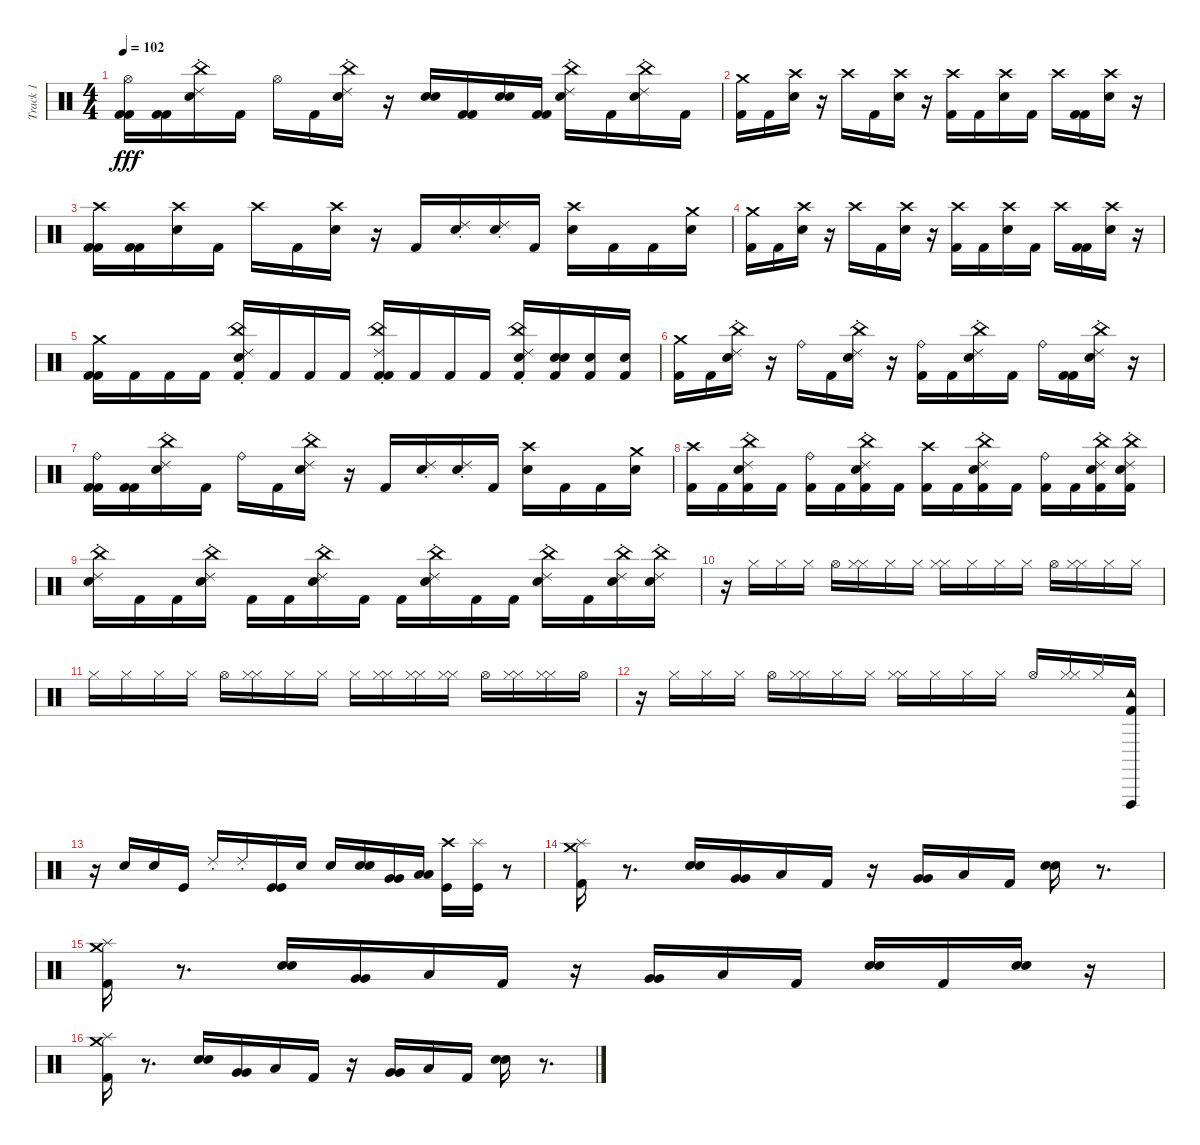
\track ("Track 1" "Track 1") {instrument percussion}
\staff {score}
\articulation defaults
\ts (4 4)
\tempo 102
\clef neutral
\ks c
("Hi-Hat (open)" "Kick (hit) 2" "Kick (hit) 2").16{dy fff} ("Kick (hit) 2" "Kick (hit) 2").16 ("China (hit)" "Ride (choke) 2" "Snare (hit) 2").16 "Kick (hit) 2".16 "Hi-Hat (open)".16 "Kick (hit) 2".16 ("China (hit)" "Ride (choke) 2" "Snare (hit) 2").16 r.16 ("Snare (hit) 2" "Snare (hit) 2").16 ("Kick (hit) 2" "Kick (hit) 2").16 ("Snare (hit) 2" "Snare (hit) 2").16 ("Kick (hit) 2" "Kick (hit) 2").16 ("China (hit)" "Ride (choke) 2" "Snare (hit) 2").16 "Kick (hit) 2".16 ("China (hit)" "Ride (choke) 2" "Snare (hit) 2").16 "Kick (hit) 2".16 |
("Kick (hit) 2" "Crash medium (hit)").16 "Kick (hit) 2".16 ("Snare (hit) 2" "Crash high (hit)").16 r.16 "Crash high (hit)".16 "Kick (hit) 2".16 ("Snare (hit) 2" "Crash high (hit)").16 r.16 ("Kick (hit) 2" "Crash high (hit)").16 "Kick (hit) 2".16 ("Snare (hit) 2" "Crash high (hit)").16 "Kick (hit) 2".16 "Crash high (hit)".16 ("Kick (hit) 2" "Kick (hit) 2").16 ("Crash high (hit)" "Snare (hit) 2").16 r.16 |
("Crash high (hit)" "Kick (hit) 2" "Kick (hit) 2").16 ("Kick (hit) 2" "Kick (hit) 2").16 ("Crash high (hit)" "Snare (hit) 2").16 "Kick (hit) 2".16 "Crash high (hit)".16 "Kick (hit) 2".16 ("Crash high (hit)" "Snare (hit) 2").16 r.16 "Kick (hit) 2".16 ("Snare (hit) 2" "Ride (choke) 2").16 ("Snare (hit) 2" "Ride (choke) 2").16 "Kick (hit) 2".16 ("Snare (hit) 2" "Crash high (hit)").16 "Kick (hit) 2".16 "Kick (hit) 2".16 ("Crash medium (hit)" "Snare (hit) 2").16 |
("Kick (hit) 2" "Crash medium (hit)").16 "Kick (hit) 2".16 ("Snare (hit) 2" "Crash high (hit)").16 r.16 "Crash high (hit)".16 "Kick (hit) 2".16 ("Snare (hit) 2" "Crash high (hit)").16 r.16 ("Kick (hit) 2" "Crash high (hit)").16 "Kick (hit) 2".16 ("Snare (hit) 2" "Crash high (hit)").16 "Kick (hit) 2".16 "Crash high (hit)".16 ("Kick (hit) 2" "Kick (hit) 2").16 ("Crash high (hit)" "Snare (hit) 2").16 r.16 |
("Kick (hit) 2" "Crash medium (hit)" "Kick (hit) 2").16 "Kick (hit) 2".16 "Kick (hit) 2".16 "Kick (hit) 2".16 ("China (hit)" "Ride (choke) 2" "Kick (hit) 2" "Snare (hit) 2").16 "Kick (hit) 2".16 "Kick (hit) 2".16 "Kick (hit) 2".16 ("Ride (choke) 2" "China (hit)" "Kick (hit) 2" "Kick (hit) 2").16 "Kick (hit) 2".16 "Kick (hit) 2".16 "Kick (hit) 2".16 ("Ride (choke) 2" "China (hit)" "Kick (hit) 2" "Snare (hit) 2").16 ("Kick (hit) 2" "Snare (hit) 2" "Snare (hit) 2").16 ("Kick (hit) 2" "Snare (hit) 2").16 ("Kick (hit) 2" "Snare (hit) 2").16 |
("Kick (hit) 2" "Crash medium (hit)").16 "Kick (hit) 2".16 ("Snare (hit) 2" "China (hit)" "Ride (choke) 2").16 r.16 "Ride (bell)".16 "Kick (hit) 2".16 ("Snare (hit) 2" "China (hit)" "Ride (choke) 2").16 r.16 ("Kick (hit) 2" "Ride (bell)").16 "Kick (hit) 2".16 ("Snare (hit) 2" "China (hit)" "Ride (choke) 2").16 "Kick (hit) 2".16 "Ride (bell)".16 ("Kick (hit) 2" "Kick (hit) 2").16 ("China (hit)" "Ride (choke) 2" "Snare (hit) 2").16 r.16 |
("Ride (bell)" "Kick (hit) 2" "Kick (hit) 2").16 ("Kick (hit) 2" "Kick (hit) 2").16 ("China (hit)" "Ride (choke) 2" "Snare (hit) 2").16 "Kick (hit) 2".16 "Ride (bell)".16 "Kick (hit) 2".16 ("China (hit)" "Ride (choke) 2" "Snare (hit) 2").16 r.16 "Kick (hit) 2".16 ("Snare (hit) 2" "Ride (choke) 2").16 ("Snare (hit) 2" "Ride (choke) 2").16 "Kick (hit) 2".16 ("Snare (hit) 2" "Crash high (hit)").16 "Kick (hit) 2".16 "Kick (hit) 2".16 ("Crash medium (hit)" "Snare (hit) 2").16 |
("Crash high (hit)" "Kick (hit) 2").16 "Kick (hit) 2".16 ("China (hit)" "Ride (choke) 2" "Snare (hit) 2" "Kick (hit) 2").16 "Kick (hit) 2".16 ("Kick (hit) 2" "Ride (bell)").16 "Kick (hit) 2".16 ("Kick (hit) 2" "China (hit)" "Ride (choke) 2" "Snare (hit) 2").16 "Kick (hit) 2".16 ("Kick (hit) 2" "Crash high (hit)").16 "Kick (hit) 2".16 ("Kick (hit) 2" "Snare (hit) 2" "China (hit)" "Ride (choke) 2").16 "Kick (hit) 2".16 ("Kick (hit) 2" "Ride (bell)").16 "Kick (hit) 2".16 ("Kick (hit) 2" "Ride (choke) 2" "China (hit)" "Snare (hit) 2").16 ("Kick (hit) 2" "Ride (choke) 2" "China (hit)" "Snare (hit) 2").16 |
("Snare (hit) 2" "China (hit)" "Ride (choke) 2").16 "Kick (hit) 2".16 "Kick (hit) 2".16 ("Snare (hit) 2" "China (hit)" "Ride (choke) 2").16 "Kick (hit) 2".16 "Kick (hit) 2".16 ("Snare (hit) 2" "China (hit)" "Ride (choke) 2").16 "Kick (hit) 2".16 "Kick (hit) 2".16 ("Snare (hit) 2" "China (hit)" "Ride (choke) 2").16 "Kick (hit) 2".16 "Kick (hit) 2".16 ("Snare (hit) 2" "China (hit)" "Ride (choke) 2").16 "Kick (hit) 2".16 ("Snare (hit) 2" "China (hit)" "Ride (choke) 2").16 ("Snare (hit) 2" "China (hit)" "Ride (choke) 2").16 |
r.16 "Hi-Hat (closed)".16 "Hi-Hat (closed)".16 "Hi-Hat (closed)".16 "Hi-Hat (open)".16 ("Hi-Hat (closed)" "Hi-Hat (closed)").16 "Hi-Hat (closed)".16 "Hi-Hat (closed)".16 ("Hi-Hat (closed)" "Hi-Hat (closed)").16 "Hi-Hat (closed)".16 "Hi-Hat (closed)".16 "Hi-Hat (closed)".16 "Hi-Hat (open)".16 ("Hi-Hat (closed)" "Hi-Hat (closed)").16 "Hi-Hat (closed)".16 "Hi-Hat (closed)".16 |
"Hi-Hat (closed)".16 "Hi-Hat (closed)".16 "Hi-Hat (closed)".16 "Hi-Hat (closed)".16 "Hi-Hat (open)".16 ("Hi-Hat (closed)" "Hi-Hat (closed)").16 "Hi-Hat (closed)".16 "Hi-Hat (closed)".16 "Hi-Hat (closed)".16 ("Hi-Hat (closed)" "Hi-Hat (closed)").16 ("Hi-Hat (closed)" "Hi-Hat (closed)").16 ("Hi-Hat (closed)" "Hi-Hat (closed)").16 "Hi-Hat (open)".16 ("Hi-Hat (closed)" "Hi-Hat (closed)").16 ("Hi-Hat (closed)" "Hi-Hat (closed)").16 "Hi-Hat (open)".16 |
r.16 "Hi-Hat (closed)".16 "Hi-Hat (closed)".16 "Hi-Hat (closed)".16 "Hi-Hat (open)".16 ("Hi-Hat (closed)" "Hi-Hat (closed)").16 "Hi-Hat (closed)".16 "Hi-Hat (closed)".16 ("Hi-Hat (closed)" "Hi-Hat (closed)").16 "Hi-Hat (closed)".16 "Hi-Hat (closed)".16 "Hi-Hat (closed)".16 "Hi-Hat (open)".16 ("Hi-Hat (closed)" "Hi-Hat (closed)").16 "Hi-Hat (closed)".16 ("Kick (hit) 2" "Tambourine (hit)" "Vibraslap (hit)").16 |
r.16 "Snare (hit) 2".16 "Snare (hit) 2".16 "Kick (hit)".16 "Ride (choke) 2".16 "Ride (choke) 2".16 ("Kick (hit)" "Kick (hit)").16 "Snare (hit) 2".16 "Snare (hit) 2".16 ("Snare (hit) 2" "Snare (hit) 2").16 ("Very Low Tom (hit)" "Very Low Tom (hit)").16 ("Low Floor Tom (hit)" "Low Floor Tom (hit)").16 ("Kick (hit)" "Crash high (hit)").16 ("Kick (hit)" "Splash (hit)").16 r.8 |
("Kick (hit) 2" "Crash medium (hit)" "Splash (hit)").16 r.8{d} ("Snare (hit) 2" "Snare (hit) 2").16 ("Very Low Tom (hit)" "Very Low Tom (hit)").16 "Low Floor Tom (hit)".16 "Kick (hit) 2".16 r.16 ("Very Low Tom (hit)" "Very Low Tom (hit)").16 "Low Floor Tom (hit)".16 "Kick (hit) 2".16 ("Snare (hit) 2" "Snare (hit) 2").16 r.8{d} |
("Kick (hit) 2" "Crash medium (hit)" "Splash (hit)").16 r.8{d} ("Snare (hit) 2" "Snare (hit) 2").16 ("Very Low Tom (hit)" "Very Low Tom (hit)").16 "Low Floor Tom (hit)".16 "Kick (hit) 2".16 r.16 ("Very Low Tom (hit)" "Very Low Tom (hit)").16 "Low Floor Tom (hit)".16 "Kick (hit) 2".16 ("Snare (hit) 2" "Snare (hit) 2").16 "Kick (hit) 2".16 ("Snare (hit) 2" "Snare (hit) 2").16 r.16 |
("Kick (hit) 2" "Crash medium (hit)" "Splash (hit)").16 r.8{d} ("Snare (hit) 2" "Snare (hit) 2").16 ("Very Low Tom (hit)" "Very Low Tom (hit)").16 "Low Floor Tom (hit)".16 "Kick (hit) 2".16 r.16 ("Very Low Tom (hit)" "Very Low Tom (hit)").16 "Low Floor Tom (hit)".16 "Kick (hit) 2".16 ("Snare (hit) 2" "Snare (hit) 2").16 r.8{d}
